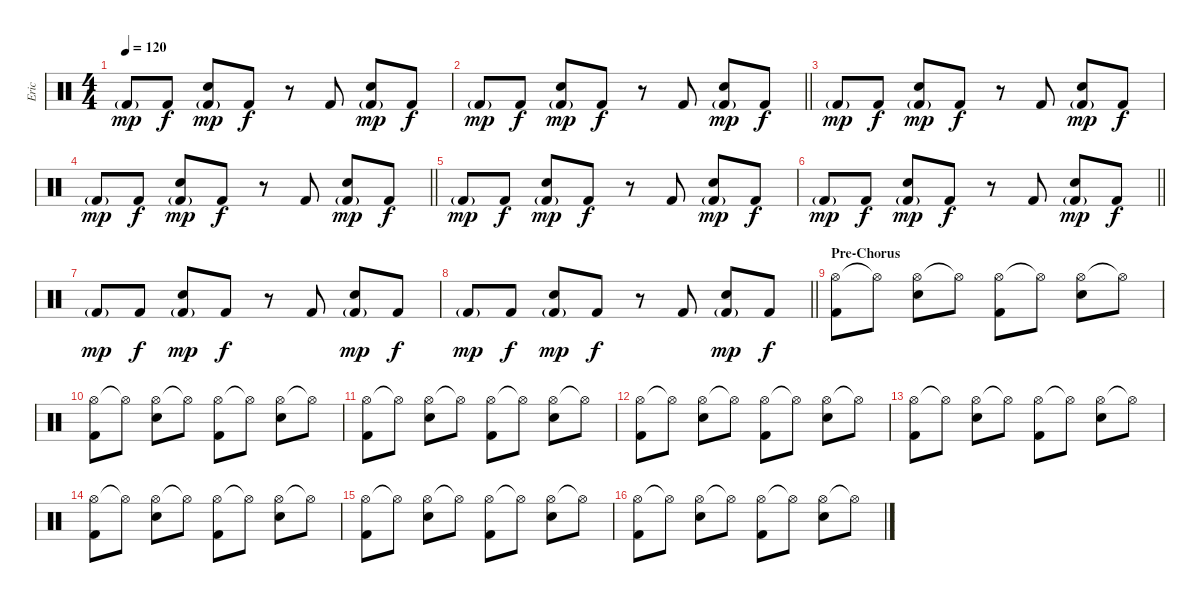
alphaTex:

\track ("Eric" "Eric") {instrument percussion}
\staff {score}
\articulation defaults
\ts (4 4)
\tempo 120
\clef neutral
\ks c "Kick (hit) 2"{g}.8{dy mp} "Kick (hit) 2".8{dy f}
("Snare (hit) 2" "Kick (hit) 2"{g}).8{dy mp} "Kick (hit) 2".8{dy f} r.8 "Kick (hit) 2".8 ("Snare (hit) 2" "Kick (hit) 2"{g}).8{dy mp} "Kick (hit) 2".8{dy f} |
\barLineRight lightlight "Kick (hit) 2"{g}.8{dy mp} "Kick (hit) 2".8{dy f}
("Snare (hit) 2" "Kick (hit) 2"{g}).8{dy mp} "Kick (hit) 2".8{dy f} r.8 "Kick (hit) 2".8 ("Snare (hit) 2" "Kick (hit) 2"{g}).8{dy mp} "Kick (hit) 2".8{dy f} |
"Kick (hit) 2"{g}.8{dy mp} "Kick (hit) 2".8{dy f} ("Snare (hit) 2" "Kick (hit) 2"{g}).8{dy mp} "Kick (hit) 2".8{dy f} r.8 "Kick (hit) 2".8 ("Snare (hit) 2" "Kick (hit) 2"{g}).8{dy mp} "Kick (hit) 2".8{dy f} |
\barLineRight lightlight "Kick (hit) 2"{g}.8{dy mp} "Kick (hit) 2".8{dy f}
("Snare (hit) 2" "Kick (hit) 2"{g}).8{dy mp} "Kick (hit) 2".8{dy f} r.8 "Kick (hit) 2".8 ("Snare (hit) 2" "Kick (hit) 2"{g}).8{dy mp} "Kick (hit) 2".8{dy f} |
"Kick (hit) 2"{g}.8{dy mp} "Kick (hit) 2".8{dy f} ("Snare (hit) 2" "Kick (hit) 2"{g}).8{dy mp} "Kick (hit) 2".8{dy f} r.8 "Kick (hit) 2".8 ("Snare (hit) 2" "Kick (hit) 2"{g}).8{dy mp} "Kick (hit) 2".8{dy f} |
\barLineRight lightlight "Kick (hit) 2"{g}.8{dy mp} "Kick (hit) 2".8{dy f}
("Snare (hit) 2" "Kick (hit) 2"{g}).8{dy mp} "Kick (hit) 2".8{dy f} r.8 "Kick (hit) 2".8 ("Snare (hit) 2" "Kick (hit) 2"{g}).8{dy mp} "Kick (hit) 2".8{dy f} |
"Kick (hit) 2"{g}.8{dy mp} "Kick (hit) 2".8{dy f} ("Snare (hit) 2" "Kick (hit) 2"{g}).8{dy mp} "Kick (hit) 2".8{dy f} r.8 "Kick (hit) 2".8 ("Snare (hit) 2" "Kick (hit) 2"{g}).8{dy mp} "Kick (hit) 2".8{dy f} |
\barLineRight lightlight "Kick (hit) 2"{g}.8{dy mp} "Kick (hit) 2".8{dy f}
("Snare (hit) 2" "Kick (hit) 2"{g}).8{dy mp} "Kick (hit) 2".8{dy f} r.8 "Kick (hit) 2".8 ("Snare (hit) 2" "Kick (hit) 2"{g}).8{dy mp} "Kick (hit) 2".8{dy f} |
\section ("" "Pre-Chorus")
("Hi-Hat (open)" "Kick (hit) 2").8 "Hi-Hat (open)"{t}.8 ("Hi-Hat (open)" "Snare (hit) 2").8 "Hi-Hat (open)"{t}.8 ("Hi-Hat (open)" "Kick (hit) 2").8 "Hi-Hat (open)"{t}.8 ("Hi-Hat (open)" "Snare (hit) 2").8 "Hi-Hat (open)"{t}.8 |
("Hi-Hat (open)" "Kick (hit) 2").8 "Hi-Hat (open)"{t}.8 ("Hi-Hat (open)" "Snare (hit) 2").8 "Hi-Hat (open)"{t}.8 ("Hi-Hat (open)" "Kick (hit) 2").8 "Hi-Hat (open)"{t}.8 ("Hi-Hat (open)" "Snare (hit) 2").8 "Hi-Hat (open)"{t}.8 |
("Hi-Hat (open)" "Kick (hit) 2").8 "Hi-Hat (open)"{t}.8 ("Hi-Hat (open)" "Snare (hit) 2").8 "Hi-Hat (open)"{t}.8 ("Hi-Hat (open)" "Kick (hit) 2").8 "Hi-Hat (open)"{t}.8 ("Hi-Hat (open)" "Snare (hit) 2").8 "Hi-Hat (open)"{t}.8 |
("Hi-Hat (open)" "Kick (hit) 2").8 "Hi-Hat (open)"{t}.8 ("Hi-Hat (open)" "Snare (hit) 2").8 "Hi-Hat (open)"{t}.8 ("Hi-Hat (open)" "Kick (hit) 2").8 "Hi-Hat (open)"{t}.8 ("Hi-Hat (open)" "Snare (hit) 2").8 "Hi-Hat (open)"{t}.8 |
("Hi-Hat (open)" "Kick (hit) 2").8 "Hi-Hat (open)"{t}.8 ("Hi-Hat (open)" "Snare (hit) 2").8 "Hi-Hat (open)"{t}.8 ("Hi-Hat (open)" "Kick (hit) 2").8 "Hi-Hat (open)"{t}.8 ("Hi-Hat (open)" "Snare (hit) 2").8 "Hi-Hat (open)"{t}.8 |
("Hi-Hat (open)" "Kick (hit) 2").8 "Hi-Hat (open)"{t}.8 ("Hi-Hat (open)" "Snare (hit) 2").8 "Hi-Hat (open)"{t}.8 ("Hi-Hat (open)" "Kick (hit) 2").8 "Hi-Hat (open)"{t}.8 ("Hi-Hat (open)" "Snare (hit) 2").8 "Hi-Hat (open)"{t}.8 |
("Hi-Hat (open)" "Kick (hit) 2").8 "Hi-Hat (open)"{t}.8 ("Hi-Hat (open)" "Snare (hit) 2").8 "Hi-Hat (open)"{t}.8 ("Hi-Hat (open)" "Kick (hit) 2").8 "Hi-Hat (open)"{t}.8 ("Hi-Hat (open)" "Snare (hit) 2").8 "Hi-Hat (open)"{t}.8 |
("Hi-Hat (open)" "Kick (hit) 2").8 "Hi-Hat (open)"{t}.8 ("Hi-Hat (open)" "Snare (hit) 2").8 "Hi-Hat (open)"{t}.8 ("Hi-Hat (open)" "Kick (hit) 2").8 "Hi-Hat (open)"{t}.8 ("Hi-Hat (open)" "Snare (hit) 2").8 "Hi-Hat (open)"{t}.8
